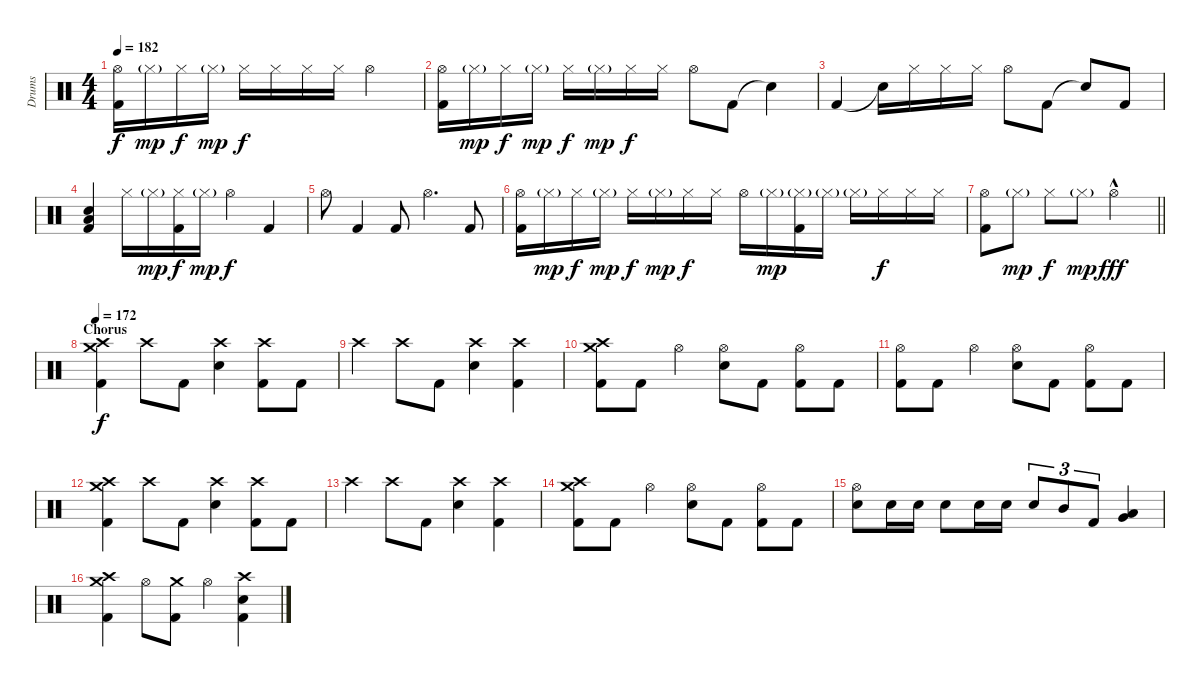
\track ("Drums" "Drums") {instrument percussion}
\staff {score}
\articulation defaults
\ts (4 4)
\tempo 182
\clef neutral
\ks c
("Hi-Hat (open)" "Kick (hit) 2").16{dy f} "Hi-Hat (closed)"{g}.16{dy mp} "Hi-Hat (closed)".16{dy f} "Hi-Hat (closed)"{g}.16{dy mp} "Hi-Hat (closed)".16{dy f} "Hi-Hat (closed)".16 "Hi-Hat (closed)".16 "Hi-Hat (closed)".16 "Hi-Hat (open)".2 |
("Hi-Hat (open)" "Kick (hit) 2").16 "Hi-Hat (closed)"{g}.16{dy mp} "Hi-Hat (closed)".16{dy f} "Hi-Hat (closed)"{g}.16{dy mp} "Hi-Hat (closed)".16{dy f} "Hi-Hat (closed)"{g}.16{dy mp} "Hi-Hat (closed)".16{dy f} "Hi-Hat (closed)".16 "Hi-Hat (open)".8 "Kick (hit) 2".8 "Snare (hit)"{t}.4 |
"Kick (hit) 2".4 "Snare (hit)"{t}.16 "Hi-Hat (closed)".16 "Hi-Hat (closed)".16 "Hi-Hat (closed)".16 "Hi-Hat (open)".8 "Kick (hit) 2".8 "Snare (hit)"{t}.8 "Kick (hit) 2".8 |
("Low Tom (hit)" "Electric Snare (hit)" "Kick (hit) 2").4 "Hi-Hat (closed)".16 "Hi-Hat (closed)"{g}.16{dy mp} ("Hi-Hat (closed)" "Kick (hit) 2").16{dy f} "Hi-Hat (closed)"{g}.16{dy mp} "Hi-Hat (open)".4{dy f} "Kick (hit) 2".4 |
"Hi-Hat (open)".8 "Kick (hit) 2".4 "Kick (hit) 2".8 "Hi-Hat (open)".4{d} "Kick (hit) 2".8 |
("Hi-Hat (open)" "Kick (hit) 2").16 "Hi-Hat (closed)"{g}.16{dy mp} "Hi-Hat (closed)".16{dy f} "Hi-Hat (closed)"{g}.16{dy mp} "Hi-Hat (closed)".16{dy f} "Hi-Hat (closed)"{g}.16{dy mp} "Hi-Hat (closed)".16{dy f} "Hi-Hat (closed)".16 "Hi-Hat (open)".16 "Hi-Hat (closed)"{g}.16{dy mp} ("Hi-Hat (closed)"{g} "Kick (hit) 2").16 "Hi-Hat (closed)"{g}.16 "Hi-Hat (closed)"{g}.16 "Hi-Hat (closed)".16{dy f} "Hi-Hat (closed)".16 "Hi-Hat (closed)".16 |
\barLineRight lightlight
("Hi-Hat (open)" "Kick (hit) 2").8 "Hi-Hat (closed)"{g}.8{dy mp} "Hi-Hat (closed)".8{dy f} "Hi-Hat (closed)"{g}.8{dy mp} "Hi-Hat (open)"{hac}.2{dy fff} |
\section ("" "Chorus")
\tempo 172
("Crash medium (hit)" "Crash high (hit)" "Kick (hit) 2").4{dy f} "Crash high (hit)".8 "Kick (hit) 2".8 ("Crash high (hit)" "Electric Snare (hit)").4 ("Crash high (hit)" "Kick (hit) 2").8 "Kick (hit) 2".8 |
"Crash high (hit)".4 "Crash high (hit)".8 "Kick (hit) 2".8 ("Crash high (hit)" "Electric Snare (hit)").4 ("Crash high (hit)" "Kick (hit) 2").4 |
("Crash medium (hit)" "Crash high (hit)" "Kick (hit) 2").8 "Kick (hit) 2".8 "Hi-Hat (open)".4 ("Hi-Hat (open)" "Electric Snare (hit)").8 "Kick (hit) 2".8 ("Hi-Hat (open)" "Kick (hit) 2").8 "Kick (hit) 2".8 |
("Hi-Hat (open)" "Kick (hit) 2").8 "Kick (hit) 2".8 "Hi-Hat (open)".4 ("Hi-Hat (open)" "Electric Snare (hit)").8 "Kick (hit) 2".8 ("Hi-Hat (open)" "Kick (hit) 2").8 "Kick (hit) 2".8 |
("Crash medium (hit)" "Crash high (hit)" "Kick (hit) 2").4 "Crash high (hit)".8 "Kick (hit) 2".8 ("Crash high (hit)" "Electric Snare (hit)").4 ("Crash high (hit)" "Kick (hit) 2").8 "Kick (hit) 2".8 |
"Crash high (hit)".4 "Crash high (hit)".8 "Kick (hit) 2".8 ("Crash high (hit)" "Electric Snare (hit)").4 ("Crash high (hit)" "Kick (hit) 2").4 |
("Crash medium (hit)" "Crash high (hit)" "Kick (hit) 2").8 "Kick (hit) 2".8 "Hi-Hat (open)".4 ("Hi-Hat (open)" "Electric Snare (hit)").8 "Kick (hit) 2".8 ("Hi-Hat (open)" "Kick (hit) 2").8 "Kick (hit) 2".8 |
("Hi-Hat (open)" "Electric Snare (hit)").8 "Electric Snare (hit)".16 "Electric Snare (hit)".16 "Electric Snare (hit)".8 "Electric Snare (hit)".16 "Electric Snare (hit)".16 "Electric Snare (hit)".8{tu (3 2)} "Mid Tom (hit)".8{tu (3 2)} "Kick (hit) 2".8{tu (3 2)} ("Low Tom (hit)" "Very Low Tom (hit)").4{bu 120} |
("Crash medium (hit)" "Crash high (hit)" "Kick (hit) 2").4 "Hi-Hat (open)".8 ("Crash medium (hit)" "Kick (hit) 2").8 "Hi-Hat (open)".4 ("Crash high (hit)" "Electric Snare (hit)" "Kick (hit) 2").4
